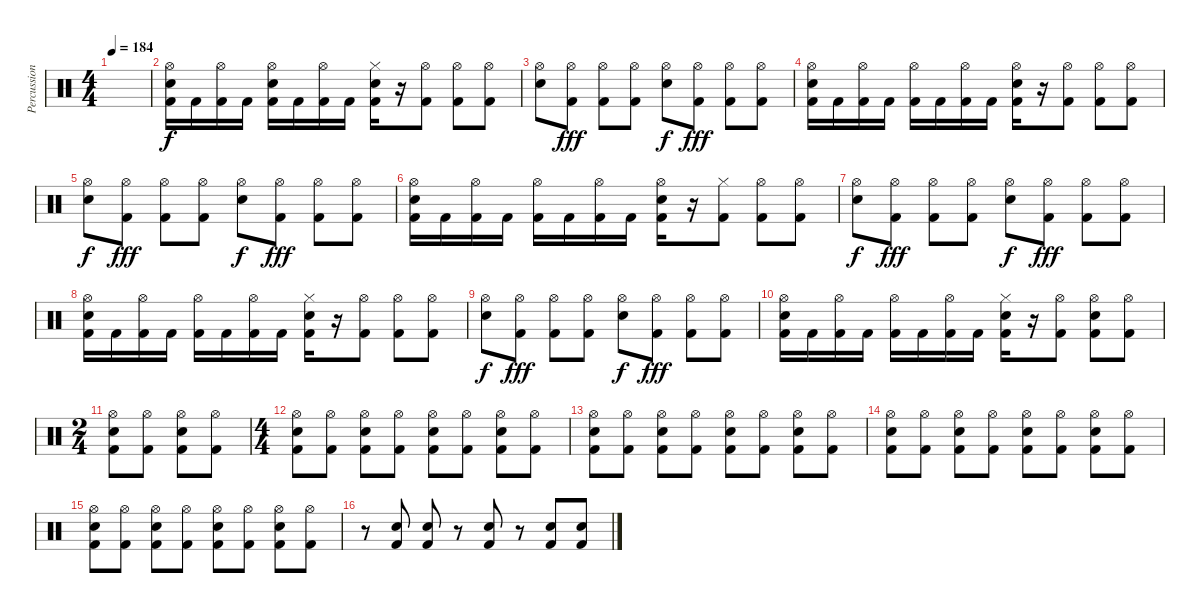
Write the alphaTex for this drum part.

\track ("Percussion" "Percussion") {instrument percussion}
\staff {score}
\articulation defaults
\ts (4 4)
\tempo 184
\clef neutral
\ks c
|
("Hi-Hat (open)" "Snare (hit) 2" "Kick (hit) 2").16 "Kick (hit) 2".16 ("Hi-Hat (open)" "Kick (hit) 2").16 "Kick (hit) 2".16 ("Hi-Hat (open)" "Snare (hit) 2" "Kick (hit) 2").16 "Kick (hit) 2".16 ("Hi-Hat (open)" "Kick (hit) 2").16 "Kick (hit) 2".16 ("Hi-Hat (closed)" "Snare (hit) 2" "Kick (hit) 2").16 r.16 ("Hi-Hat (open)" "Kick (hit) 2").8 ("Hi-Hat (open)" "Kick (hit) 2").8 ("Hi-Hat (open)" "Kick (hit) 2").8 |
("Hi-Hat (open)" "Snare (hit) 2").8{dy f} ("Hi-Hat (open)" "Kick (hit) 2").8{dy fff} ("Hi-Hat (open)" "Kick (hit) 2").8 ("Hi-Hat (open)" "Kick (hit) 2").8 ("Hi-Hat (open)" "Snare (hit) 2").8{dy f} ("Hi-Hat (open)" "Kick (hit) 2").8{dy fff} ("Hi-Hat (open)" "Kick (hit) 2").8 ("Hi-Hat (open)" "Kick (hit) 2").8 |
("Hi-Hat (open)" "Snare (hit) 2" "Kick (hit) 2").16 "Kick (hit) 2".16 ("Hi-Hat (open)" "Kick (hit) 2").16 "Kick (hit) 2".16 ("Hi-Hat (open)" "Kick (hit) 2").16 "Kick (hit) 2".16 ("Hi-Hat (open)" "Kick (hit) 2").16 "Kick (hit) 2".16 ("Hi-Hat (open)" "Snare (hit) 2" "Kick (hit) 2").16 r.16 ("Hi-Hat (open)" "Kick (hit) 2").8 ("Hi-Hat (open)" "Kick (hit) 2").8 ("Hi-Hat (open)" "Kick (hit) 2").8 |
("Hi-Hat (open)" "Snare (hit) 2").8{dy f} ("Hi-Hat (open)" "Kick (hit) 2").8{dy fff} ("Hi-Hat (open)" "Kick (hit) 2").8 ("Hi-Hat (open)" "Kick (hit) 2").8 ("Hi-Hat (open)" "Snare (hit) 2").8{dy f} ("Hi-Hat (open)" "Kick (hit) 2").8{dy fff} ("Hi-Hat (open)" "Kick (hit) 2").8 ("Hi-Hat (open)" "Kick (hit) 2").8 |
("Hi-Hat (open)" "Snare (hit) 2" "Kick (hit) 2").16 "Kick (hit) 2".16 ("Hi-Hat (open)" "Kick (hit) 2").16 "Kick (hit) 2".16 ("Hi-Hat (open)" "Kick (hit) 2").16 "Kick (hit) 2".16 ("Hi-Hat (open)" "Kick (hit) 2").16 "Kick (hit) 2".16 ("Hi-Hat (open)" "Snare (hit) 2" "Kick (hit) 2").16 r.16 ("Hi-Hat (closed)" "Kick (hit) 2").8 ("Hi-Hat (open)" "Kick (hit) 2").8 ("Hi-Hat (open)" "Kick (hit) 2").8 |
("Hi-Hat (open)" "Snare (hit) 2").8{dy f} ("Hi-Hat (open)" "Kick (hit) 2").8{dy fff} ("Hi-Hat (open)" "Kick (hit) 2").8 ("Hi-Hat (open)" "Kick (hit) 2").8 ("Hi-Hat (open)" "Snare (hit) 2").8{dy f} ("Hi-Hat (open)" "Kick (hit) 2").8{dy fff} ("Hi-Hat (open)" "Kick (hit) 2").8 ("Hi-Hat (open)" "Kick (hit) 2").8 |
("Hi-Hat (open)" "Snare (hit) 2" "Kick (hit) 2").16 "Kick (hit) 2".16 ("Hi-Hat (open)" "Kick (hit) 2").16 "Kick (hit) 2".16 ("Hi-Hat (open)" "Kick (hit) 2").16 "Kick (hit) 2".16 ("Hi-Hat (open)" "Kick (hit) 2").16 "Kick (hit) 2".16 ("Hi-Hat (closed)" "Snare (hit) 2" "Kick (hit) 2").16 r.16 ("Hi-Hat (open)" "Kick (hit) 2").8 ("Hi-Hat (open)" "Kick (hit) 2").8 ("Hi-Hat (open)" "Kick (hit) 2").8 |
("Hi-Hat (open)" "Snare (hit) 2").8{dy f} ("Hi-Hat (open)" "Kick (hit) 2").8{dy fff} ("Hi-Hat (open)" "Kick (hit) 2").8 ("Hi-Hat (open)" "Kick (hit) 2").8 ("Hi-Hat (open)" "Snare (hit) 2").8{dy f} ("Hi-Hat (open)" "Kick (hit) 2").8{dy fff} ("Hi-Hat (open)" "Kick (hit) 2").8 ("Hi-Hat (open)" "Kick (hit) 2").8 |
("Hi-Hat (open)" "Snare (hit) 2" "Kick (hit) 2").16 "Kick (hit) 2".16 ("Hi-Hat (open)" "Kick (hit) 2").16 "Kick (hit) 2".16 ("Hi-Hat (open)" "Kick (hit) 2").16 "Kick (hit) 2".16 ("Hi-Hat (open)" "Kick (hit) 2").16 "Kick (hit) 2".16 ("Hi-Hat (closed)" "Snare (hit) 2" "Kick (hit) 2").16 r.16 ("Hi-Hat (open)" "Kick (hit) 2").8 ("Hi-Hat (open)" "Snare (hit) 2" "Kick (hit) 2").8 ("Hi-Hat (open)" "Kick (hit) 2").8 |
\ts (2 4)
("Hi-Hat (open)" "Snare (hit) 2" "Kick (hit) 2").8 ("Hi-Hat (open)" "Kick (hit) 2").8 ("Hi-Hat (open)" "Snare (hit) 2" "Kick (hit) 2").8 ("Hi-Hat (open)" "Kick (hit) 2").8 |
\ts (4 4)
("Hi-Hat (open)" "Snare (hit) 2" "Kick (hit) 2").8 ("Hi-Hat (open)" "Kick (hit) 2").8 ("Hi-Hat (open)" "Snare (hit) 2" "Kick (hit) 2").8 ("Hi-Hat (open)" "Kick (hit) 2").8 ("Hi-Hat (open)" "Snare (hit) 2" "Kick (hit) 2").8 ("Hi-Hat (open)" "Kick (hit) 2").8 ("Hi-Hat (open)" "Snare (hit) 2" "Kick (hit) 2").8 ("Hi-Hat (open)" "Kick (hit) 2").8 |
("Hi-Hat (open)" "Snare (hit) 2" "Kick (hit) 2").8 ("Hi-Hat (open)" "Kick (hit) 2").8 ("Hi-Hat (open)" "Snare (hit) 2" "Kick (hit) 2").8 ("Hi-Hat (open)" "Kick (hit) 2").8 ("Hi-Hat (open)" "Snare (hit) 2" "Kick (hit) 2").8 ("Hi-Hat (open)" "Kick (hit) 2").8 ("Hi-Hat (open)" "Snare (hit) 2" "Kick (hit) 2").8 ("Hi-Hat (open)" "Kick (hit) 2").8 |
("Hi-Hat (open)" "Snare (hit) 2" "Kick (hit) 2").8 ("Hi-Hat (open)" "Kick (hit) 2").8 ("Hi-Hat (open)" "Snare (hit) 2" "Kick (hit) 2").8 ("Hi-Hat (open)" "Kick (hit) 2").8 ("Hi-Hat (open)" "Snare (hit) 2" "Kick (hit) 2").8 ("Hi-Hat (open)" "Kick (hit) 2").8 ("Hi-Hat (open)" "Snare (hit) 2" "Kick (hit) 2").8 ("Hi-Hat (open)" "Kick (hit) 2").8 |
("Hi-Hat (open)" "Snare (hit) 2" "Kick (hit) 2").8 ("Hi-Hat (open)" "Kick (hit) 2").8 ("Hi-Hat (open)" "Snare (hit) 2" "Kick (hit) 2").8 ("Hi-Hat (open)" "Kick (hit) 2").8 ("Hi-Hat (open)" "Snare (hit) 2" "Kick (hit) 2").8 ("Hi-Hat (open)" "Kick (hit) 2").8 ("Hi-Hat (open)" "Snare (hit) 2" "Kick (hit) 2").8 ("Hi-Hat (open)" "Kick (hit) 2").8 |
r.8 ("Snare (hit) 2" "Kick (hit) 2").8 ("Snare (hit) 2" "Kick (hit) 2").8 r.8 ("Snare (hit) 2" "Kick (hit) 2").8 r.8 ("Snare (hit) 2" "Kick (hit) 2").8 ("Snare (hit) 2" "Kick (hit) 2").8
